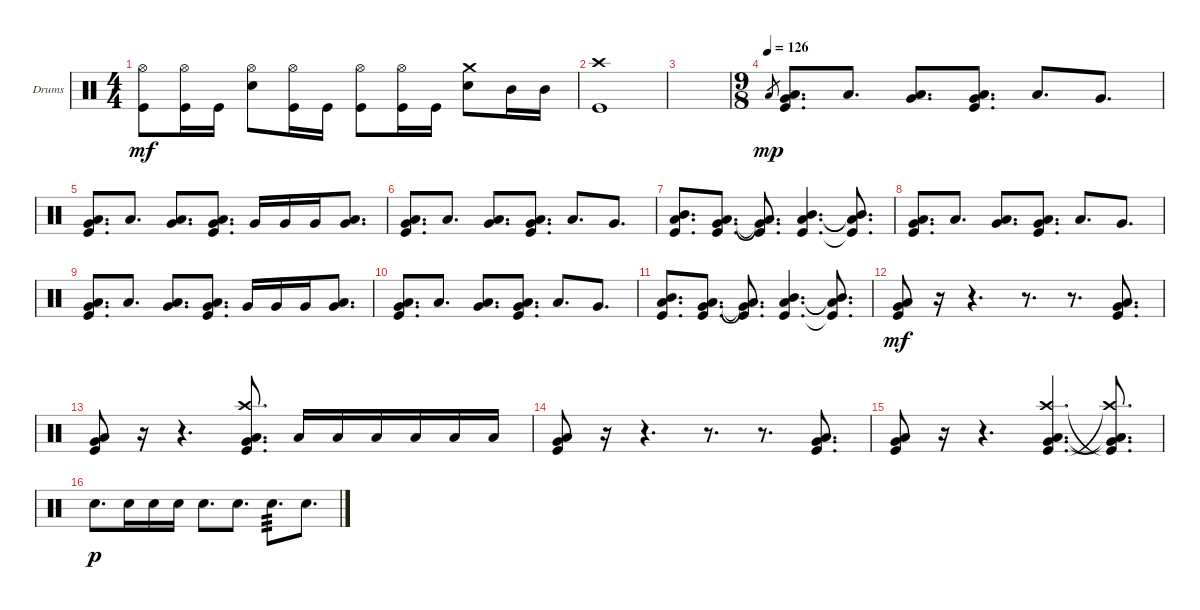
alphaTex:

\defaultSystemsLayout 4
\bracketExtendMode groupsimilarinstruments
\firstSystemTrackNameOrientation horizontal
\otherSystemsTrackNameOrientation horizontal
\track ("Drumkit" "Drums") {instrument percussion}
\staff {score}
\articulation defaults
\ts (4 4)
\tempo (69 hide)
\clef neutral
\ks c
("Hi-Hat (open)" "Kick (hit)").8{dy mf} ("Kick (hit)" "Hi-Hat (open)").16 "Kick (hit)".16 ("Hi-Hat (open)" "Snare (hit) 2").8 ("Kick (hit)" "Hi-Hat (open)").16 "Kick (hit)".16 ("Kick (hit)" "Hi-Hat (open)").8 ("Kick (hit)" "Hi-Hat (open)").16 "Kick (hit)".16 ("Snare (hit) 2" "Crash medium (hit)").8 "Mid Tom (hit)".16 "Mid Tom (hit)".16 |
("Crash high (hit)" "Kick (hit)").1 |
|
\ts (9 8)
\tempo (126)
"Low Tom (hit)".8{gr dy mp} ("Kick (hit)" "Very Low Tom (hit)" "Low Tom (hit)").8{d} "Low Tom (hit)".8{d} ("Low Tom (hit)" "Very Low Tom (hit)").8{d} ("Very Low Tom (hit)" "Low Tom (hit)" "Kick (hit)").8{d} "Low Tom (hit)".8{d} "Very Low Tom (hit)".8{d} |
("Kick (hit)" "Very Low Tom (hit)" "Low Tom (hit)").8{d} "Low Tom (hit)".8{d} ("Low Tom (hit)" "Very Low Tom (hit)").8{d} ("Very Low Tom (hit)" "Low Tom (hit)" "Kick (hit)").8{d} "Very Low Tom (hit)".16 "Very Low Tom (hit)".16 "Very Low Tom (hit)".16 ("Very Low Tom (hit)" "Low Tom (hit)").8{d} |
("Kick (hit)" "Very Low Tom (hit)" "Low Tom (hit)").8{d} "Low Tom (hit)".8{d} ("Low Tom (hit)" "Very Low Tom (hit)").8{d} ("Very Low Tom (hit)" "Low Tom (hit)" "Kick (hit)").8{d} "Low Tom (hit)".8{d} "Very Low Tom (hit)".8{d} |
("Mid Tom (hit)" "Low Tom (hit)" "Kick (hit)").8{d} ("Low Tom (hit)" "Very Low Tom (hit)" "Kick (hit)").8{d} ("Kick (hit)"{t} "Very Low Tom (hit)"{t} "Low Tom (hit)"{t}).8{d} ("Low Tom (hit)" "Mid Tom (hit)" "Kick (hit)").4{d} ("Mid Tom (hit)"{t} "Low Tom (hit)"{t} "Kick (hit)"{t}).8{d} |
("Kick (hit)" "Very Low Tom (hit)" "Low Tom (hit)").8{d} "Low Tom (hit)".8{d} ("Low Tom (hit)" "Very Low Tom (hit)").8{d} ("Very Low Tom (hit)" "Low Tom (hit)" "Kick (hit)").8{d} "Low Tom (hit)".8{d} "Very Low Tom (hit)".8{d} |
("Kick (hit)" "Very Low Tom (hit)" "Low Tom (hit)").8{d} "Low Tom (hit)".8{d} ("Low Tom (hit)" "Very Low Tom (hit)").8{d} ("Very Low Tom (hit)" "Low Tom (hit)" "Kick (hit)").8{d} "Very Low Tom (hit)".16 "Very Low Tom (hit)".16 "Very Low Tom (hit)".16 ("Very Low Tom (hit)" "Low Tom (hit)").8{d} |
("Kick (hit)" "Very Low Tom (hit)" "Low Tom (hit)").8{d} "Low Tom (hit)".8{d} ("Low Tom (hit)" "Very Low Tom (hit)").8{d} ("Very Low Tom (hit)" "Low Tom (hit)" "Kick (hit)").8{d} "Low Tom (hit)".8{d} "Very Low Tom (hit)".8{d} |
("Mid Tom (hit)" "Low Tom (hit)" "Kick (hit)").8{d} ("Low Tom (hit)" "Very Low Tom (hit)" "Kick (hit)").8{d} ("Kick (hit)"{t} "Very Low Tom (hit)"{t} "Low Tom (hit)"{t}).8{d} ("Low Tom (hit)" "Mid Tom (hit)" "Kick (hit)").4{d} ("Mid Tom (hit)"{t} "Low Tom (hit)"{t} "Kick (hit)"{t}).8{d} |
("Kick (hit)" "Very Low Tom (hit)" "Low Tom (hit)").8{dy mf} r.16 r.4{d} r.8{d} r.8{d} ("Kick (hit)" "Very Low Tom (hit)" "Low Tom (hit)").8{d} |
("Kick (hit)" "Very Low Tom (hit)" "Low Tom (hit)").8 r.16 r.4{d} ("Kick (hit)" "Very Low Tom (hit)" "Low Tom (hit)" "Crash high (hit)").8{d} "Low Tom (hit)".16 "Low Tom (hit)".16 "Low Tom (hit)".16 "Low Tom (hit)".16 "Low Tom (hit)".16 "Low Tom (hit)".16 |
("Kick (hit)" "Very Low Tom (hit)" "Low Tom (hit)").8 r.16 r.4{d} r.8{d} r.8{d} ("Kick (hit)" "Very Low Tom (hit)" "Low Tom (hit)").8{d} |
("Kick (hit)" "Very Low Tom (hit)" "Low Tom (hit)").8 r.16 r.4{d} ("Kick (hit)" "Very Low Tom (hit)" "Low Tom (hit)" "Crash high (hit)").4{d} ("Crash high (hit)"{t} "Low Tom (hit)"{t} "Very Low Tom (hit)"{t} "Kick (hit)"{t}).8{d} |
"Snare (hit) 2".8{d dy p} "Snare (hit) 2".16 "Snare (hit) 2".16 "Snare (hit) 2".16 "Snare (hit) 2".8{d} "Snare (hit) 2".8{d} "Snare (hit) 2".8{d tp 3} "Snare (hit) 2".8{d}
